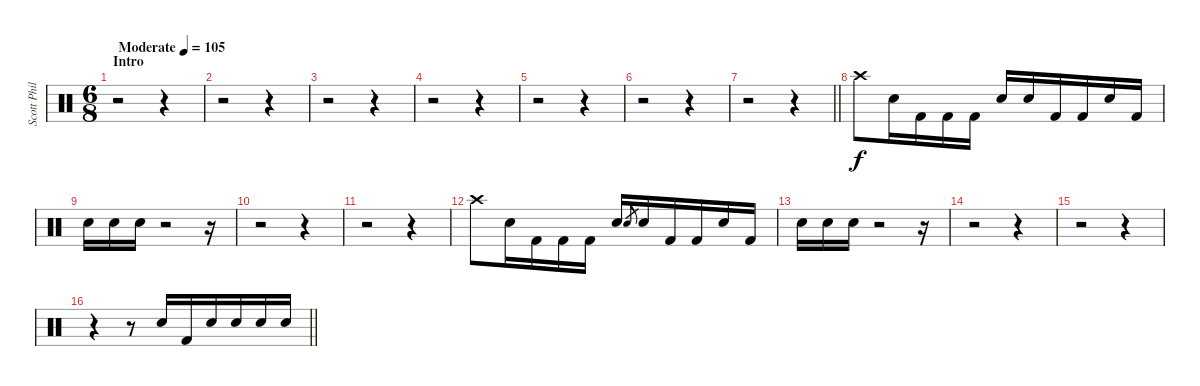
\track ("Scott Phillips (Drums)" "Scott Phil") {instrument percussion}
\staff {score}
\articulation defaults
\ts (6 8)
\section ("" "Intro")
\tempo (105 "Moderate")
\clef neutral
\ks c
r.2{dy f} r.4 |
r.2 r.4 |
r.2 r.4 |
r.2 r.4 |
r.2 r.4 |
r.2 r.4 |
\barLineRight lightlight
r.2 r.4 |
"Crash high (hit)".8 "Electric Snare (hit)".16 "Kick (hit) 2".16 "Kick (hit) 2".16 "Kick (hit) 2".16 "Electric Snare (hit)".16 "Electric Snare (hit)".16 "Kick (hit) 2".16 "Kick (hit) 2".16 "Electric Snare (hit)".16 "Kick (hit) 2".16 |
"Electric Snare (hit)".16 "Electric Snare (hit)".16 "Electric Snare (hit)".16 r.2 r.16 |
r.2 r.4 |
r.2 r.4 |
"Crash high (hit)".8 "Electric Snare (hit)".16 "Kick (hit) 2".16 "Kick (hit) 2".16 "Kick (hit) 2".16 "Electric Snare (hit)".16 "Electric Snare (hit)".8{gr} "Electric Snare (hit)".16 "Kick (hit) 2".16 "Kick (hit) 2".16 "Electric Snare (hit)".16 "Kick (hit) 2".16 |
"Electric Snare (hit)".16 "Electric Snare (hit)".16 "Electric Snare (hit)".16 r.2 r.16 |
r.2 r.4 |
r.2 r.4 |
\barLineRight lightlight
r.4 r.8 "Electric Snare (hit)".16 "Kick (hit) 2".16 "Electric Snare (hit)".16 "Electric Snare (hit)".16 "Electric Snare (hit)".16 "Electric Snare (hit)".16
